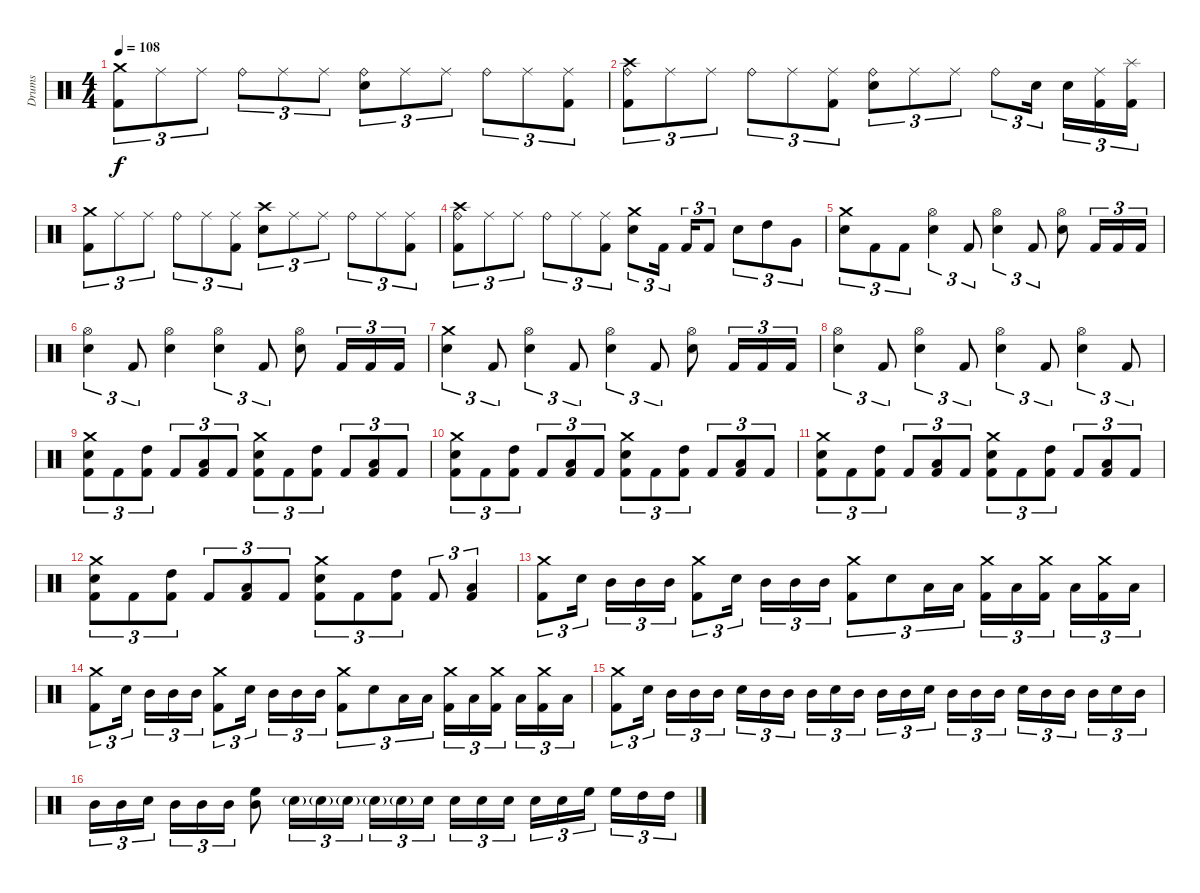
\track ("Drums" "Drums") {instrument percussion}
\staff {score}
\articulation defaults
\ts (4 4)
\tempo 108
\clef neutral
\ks c
("Crash medium (hit)" "Kick (hit) 2").8{tu (3 2) dy f} "Ride (middle)".8{tu (3 2)} "Ride (middle)".8{tu (3 2)} "Ride (bell)".8{tu (3 2)} "Ride (middle)".8{tu (3 2)} "Ride (middle)".8{tu (3 2)} ("Ride (bell)" "Snare (hit) 2").8{tu (3 2)} "Ride (middle)".8{tu (3 2)} "Ride (middle)".8{tu (3 2)} "Ride (bell)".8{tu (3 2)} "Ride (middle)".8{tu (3 2)} ("Ride (middle)" "Kick (hit) 2").8{tu (3 2)} |
("Crash high (hit)" "Ride (bell)" "Kick (hit) 2").8{tu (3 2)} "Ride (middle)".8{tu (3 2)} "Ride (middle)".8{tu (3 2)} "Ride (bell)".8{tu (3 2)} "Ride (middle)".8{tu (3 2)} ("Ride (middle)" "Kick (hit) 2").8{tu (3 2)} ("Ride (bell)" "Snare (hit) 2").8{tu (3 2)} "Ride (middle)".8{tu (3 2)} "Ride (middle)".8{tu (3 2)} "Ride (bell)".8{tu (3 2)} "Snare (hit) 2".16{tu (3 2)} "Snare (hit) 2".16{tu (3 2)} ("Ride (middle)" "Kick (hit) 2").16{tu (3 2)} ("Splash (hit)" "Kick (hit) 2").16{tu (3 2)} |
("Crash medium (hit)" "Kick (hit) 2").8{tu (3 2)} "Ride (middle)".8{tu (3 2)} "Ride (middle)".8{tu (3 2)} "Ride (bell)".8{tu (3 2)} "Ride (middle)".8{tu (3 2)} ("Ride (middle)" "Kick (hit) 2").8{tu (3 2)} ("Crash high (hit)" "Snare (hit) 2").8{tu (3 2)} "Ride (middle)".8{tu (3 2)} "Ride (middle)".8{tu (3 2)} "Ride (bell)".8{tu (3 2)} "Ride (middle)".8{tu (3 2)} ("Ride (middle)" "Kick (hit) 2").8{tu (3 2)} |
("Crash high (hit)" "Ride (bell)" "Kick (hit) 2").8{tu (3 2)} "Ride (middle)".8{tu (3 2)} "Ride (middle)".8{tu (3 2)} "Ride (bell)".8{tu (3 2)} "Ride (middle)".8{tu (3 2)} ("Ride (middle)" "Kick (hit) 2").8{tu (3 2)} ("Crash medium (hit)" "Snare (hit) 2").8{tu (3 2)} "Kick (hit) 2".16{tu (3 2)} "Kick (hit) 2".16{tu (3 2)} "Kick (hit) 2".8{tu (3 2)} "Snare (hit) 2".8{tu (3 2)} "High Tom (hit)".8{tu (3 2)} "Very Low Tom (hit)".8{tu (3 2)} |
("Crash medium (hit)" "Snare (hit) 2").8{tu (3 2)} "Kick (hit) 2".8{tu (3 2)} "Kick (hit) 2".8{tu (3 2)} ("Hi-Hat (open)" "Snare (hit) 2").4{tu (3 2)} "Kick (hit) 2".8{tu (3 2)} ("Hi-Hat (open)" "Snare (hit) 2").4{tu (3 2)} "Kick (hit) 2".8{tu (3 2)} ("Hi-Hat (open)" "Snare (hit) 2").8 "Kick (hit) 2".16{tu (3 2)} "Kick (hit) 2".16{tu (3 2)} "Kick (hit) 2".16{tu (3 2)} |
("Hi-Hat (open)" "Snare (hit) 2").4{tu (3 2)} "Kick (hit) 2".8{tu (3 2)} ("Hi-Hat (open)" "Snare (hit) 2").4 ("Hi-Hat (open)" "Snare (hit) 2").4{tu (3 2)} "Kick (hit) 2".8{tu (3 2)} ("Hi-Hat (open)" "Snare (hit) 2").8 "Kick (hit) 2".16{tu (3 2)} "Kick (hit) 2".16{tu (3 2)} "Kick (hit) 2".16{tu (3 2)} |
("Crash medium (hit)" "Snare (hit) 2").4{tu (3 2)} "Kick (hit) 2".8{tu (3 2)} ("Hi-Hat (open)" "Snare (hit) 2").4{tu (3 2)} "Kick (hit) 2".8{tu (3 2)} ("Hi-Hat (open)" "Snare (hit) 2").4{tu (3 2)} "Kick (hit) 2".8{tu (3 2)} ("Hi-Hat (open)" "Snare (hit) 2").8 "Kick (hit) 2".16{tu (3 2)} "Kick (hit) 2".16{tu (3 2)} "Kick (hit) 2".16{tu (3 2)} |
("Hi-Hat (open)" "Snare (hit) 2").4{tu (3 2)} "Kick (hit) 2".8{tu (3 2)} ("Hi-Hat (open)" "Snare (hit) 2").4{tu (3 2)} "Kick (hit) 2".8{tu (3 2)} ("Hi-Hat (open)" "Snare (hit) 2").4{tu (3 2)} "Kick (hit) 2".8{tu (3 2)} ("Hi-Hat (open)" "Snare (hit) 2").4{tu (3 2)} "Kick (hit) 2".8{tu (3 2)} |
("Crash medium (hit)" "Snare (hit) 2" "Kick (hit) 2").8{tu (3 2)} "Kick (hit) 2".8{tu (3 2)} ("High Tom (hit)" "Kick (hit) 2").8{tu (3 2)} "Kick (hit) 2".8{tu (3 2)} ("Low Tom (hit)" "Kick (hit) 2").8{tu (3 2)} "Kick (hit) 2".8{tu (3 2)} ("Crash medium (hit)" "Snare (hit) 2" "Kick (hit) 2").8{tu (3 2)} "Kick (hit) 2".8{tu (3 2)} ("High Tom (hit)" "Kick (hit) 2").8{tu (3 2)} "Kick (hit) 2".8{tu (3 2)} ("Low Tom (hit)" "Kick (hit) 2").8{tu (3 2)} "Kick (hit) 2".8{tu (3 2)} |
("Crash medium (hit)" "Snare (hit) 2" "Kick (hit) 2").8{tu (3 2)} "Kick (hit) 2".8{tu (3 2)} ("High Tom (hit)" "Kick (hit) 2").8{tu (3 2)} "Kick (hit) 2".8{tu (3 2)} ("Low Tom (hit)" "Kick (hit) 2").8{tu (3 2)} "Kick (hit) 2".8{tu (3 2)} ("Crash medium (hit)" "Snare (hit) 2" "Kick (hit) 2").8{tu (3 2)} "Kick (hit) 2".8{tu (3 2)} ("High Tom (hit)" "Kick (hit) 2").8{tu (3 2)} "Kick (hit) 2".8{tu (3 2)} ("Low Tom (hit)" "Kick (hit) 2").8{tu (3 2)} "Kick (hit) 2".8{tu (3 2)} |
("Crash medium (hit)" "Snare (hit) 2" "Kick (hit) 2").8{tu (3 2)} "Kick (hit) 2".8{tu (3 2)} ("High Tom (hit)" "Kick (hit) 2").8{tu (3 2)} "Kick (hit) 2".8{tu (3 2)} ("Low Tom (hit)" "Kick (hit) 2").8{tu (3 2)} "Kick (hit) 2".8{tu (3 2)} ("Crash medium (hit)" "Snare (hit) 2" "Kick (hit) 2").8{tu (3 2)} "Kick (hit) 2".8{tu (3 2)} ("High Tom (hit)" "Kick (hit) 2").8{tu (3 2)} "Kick (hit) 2".8{tu (3 2)} ("Low Tom (hit)" "Kick (hit) 2").8{tu (3 2)} "Kick (hit) 2".8{tu (3 2)} |
("Crash medium (hit)" "Snare (hit) 2" "Kick (hit) 2").8{tu (3 2)} "Kick (hit) 2".8{tu (3 2)} ("High Tom (hit)" "Kick (hit) 2").8{tu (3 2)} "Kick (hit) 2".8{tu (3 2)} ("Low Tom (hit)" "Kick (hit) 2").8{tu (3 2)} "Kick (hit) 2".8{tu (3 2)} ("Crash medium (hit)" "Snare (hit) 2" "Kick (hit) 2").8{tu (3 2)} "Kick (hit) 2".8{tu (3 2)} ("High Tom (hit)" "Kick (hit) 2").8{tu (3 2)} "Kick (hit) 2".8{tu (3 2)} ("Low Tom (hit)" "Kick (hit) 2").4{tu (3 2)} |
("Crash medium (hit)" "Kick (hit) 2").8{tu (3 2)} "Snare (hit) 2".16{tu (3 2)} "Mid Tom (hit)".16{tu (3 2)} "Mid Tom (hit)".16{tu (3 2)} "Mid Tom (hit)".16{tu (3 2)} ("Crash medium (hit)" "Kick (hit) 2").8{tu (3 2)} "Snare (hit) 2".16{tu (3 2)} "Mid Tom (hit)".16{tu (3 2)} "Mid Tom (hit)".16{tu (3 2)} "Mid Tom (hit)".16{tu (3 2)} ("Crash medium (hit)" "Kick (hit) 2").8{tu (3 2)} "Snare (hit) 2".8{tu (3 2)} "Low Tom (hit)".16{tu (3 2)} "Low Tom (hit)".16{tu (3 2)} ("Crash medium (hit)" "Kick (hit) 2").16{tu (3 2)} "Low Tom (hit)".16{tu (3 2)} ("Crash medium (hit)" "Kick (hit) 2").16{tu (3 2)} "Low Tom (hit)".16{tu (3 2)} ("Crash medium (hit)" "Kick (hit) 2").16{tu (3 2)} "Low Tom (hit)".16{tu (3 2)} |
("Crash medium (hit)" "Kick (hit) 2").8{tu (3 2)} "Snare (hit) 2".16{tu (3 2)} "Mid Tom (hit)".16{tu (3 2)} "Mid Tom (hit)".16{tu (3 2)} "Mid Tom (hit)".16{tu (3 2)} ("Crash medium (hit)" "Kick (hit) 2").8{tu (3 2)} "Snare (hit) 2".16{tu (3 2)} "Mid Tom (hit)".16{tu (3 2)} "Mid Tom (hit)".16{tu (3 2)} "Mid Tom (hit)".16{tu (3 2)} ("Crash medium (hit)" "Kick (hit) 2").8{tu (3 2)} "Snare (hit) 2".8{tu (3 2)} "Low Tom (hit)".16{tu (3 2)} "Low Tom (hit)".16{tu (3 2)} ("Crash medium (hit)" "Kick (hit) 2").16{tu (3 2)} "Low Tom (hit)".16{tu (3 2)} ("Crash medium (hit)" "Kick (hit) 2").16{tu (3 2)} "Low Tom (hit)".16{tu (3 2)} ("Crash medium (hit)" "Kick (hit) 2").16{tu (3 2)} "Low Tom (hit)".16{tu (3 2)} |
("Crash medium (hit)" "Kick (hit) 2").8{tu (3 2)} "Snare (hit) 2".16{tu (3 2)} "Mid Tom (hit)".16{tu (3 2)} "Mid Tom (hit)".16{tu (3 2)} "Mid Tom (hit)".16{tu (3 2)} "Snare (hit) 2".16{tu (3 2)} "Mid Tom (hit)".16{tu (3 2)} "Mid Tom (hit)".16{tu (3 2)} "Mid Tom (hit)".16{tu (3 2)} "Snare (hit) 2".16{tu (3 2)} "Mid Tom (hit)".16{tu (3 2)} "Mid Tom (hit)".16{tu (3 2)} "Mid Tom (hit)".16{tu (3 2)} "Snare (hit) 2".16{tu (3 2)} "Mid Tom (hit)".16{tu (3 2)} "Mid Tom (hit)".16{tu (3 2)} "Mid Tom (hit)".16{tu (3 2)} "Snare (hit) 2".16{tu (3 2)} "Mid Tom (hit)".16{tu (3 2)} "Mid Tom (hit)".16{tu (3 2)} "Mid Tom (hit)".16{tu (3 2)} "Snare (hit) 2".16{tu (3 2)} "Mid Tom (hit)".16{tu (3 2)} |
"Mid Tom (hit)".16{tu (3 2)} "Mid Tom (hit)".16{tu (3 2)} "Snare (hit) 2".16{tu (3 2)} "Mid Tom (hit)".16{tu (3 2)} "Mid Tom (hit)".16{tu (3 2)} "Mid Tom (hit)".16{tu (3 2)} ("Mid Tom (hit)" "High Floor Tom (hit)").8 "Snare (hit) 2"{g}.16{tu (3 2)} "Snare (hit) 2"{g}.16{tu (3 2)} "Snare (hit) 2"{g}.16{tu (3 2)} "Snare (hit) 2"{g}.16{tu (3 2)} "Snare (hit) 2"{g}.16{tu (3 2)} "Snare (hit) 2".16{tu (3 2)} "Snare (hit) 2".16{tu (3 2)} "Snare (hit) 2".16{tu (3 2)} "Snare (hit) 2".16{tu (3 2)} "Snare (hit) 2".16{tu (3 2)} "Snare (hit) 2".16{tu (3 2)} "High Floor Tom (hit)".16{tu (3 2)} "High Floor Tom (hit)".16{tu (3 2)} "High Tom (hit)".16{tu (3 2)} "High Tom (hit)".16{tu (3 2)}
